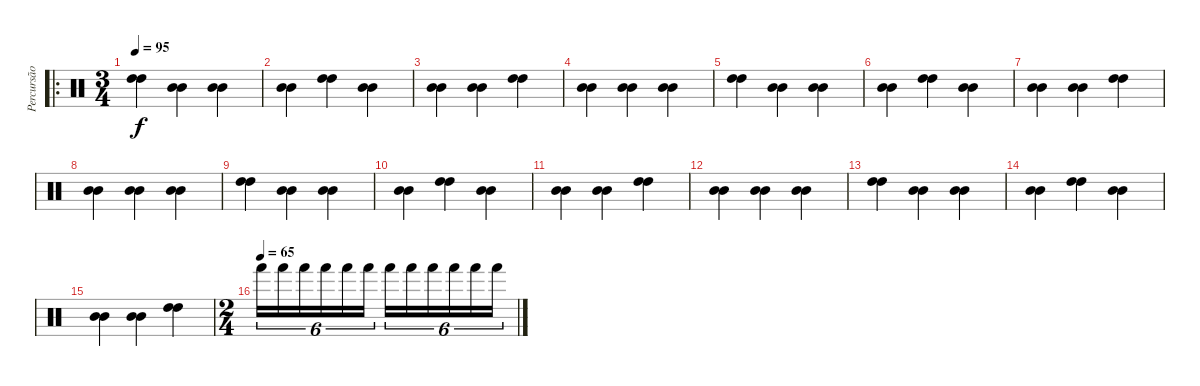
\track ("Percursão" "Percursão") {instrument percussion}
\staff {score}
\articulation defaults
\ro
\ts (3 4)
\tempo 95
\clef neutral
\ks c
("High Tom (hit)" "High Tom (hit)").4{dy f} ("Mid Tom (hit)" "Mid Tom (hit)").4 ("Mid Tom (hit)" "Mid Tom (hit)").4 |
("Mid Tom (hit)" "Mid Tom (hit)").4 ("High Tom (hit)" "High Tom (hit)").4 ("Mid Tom (hit)" "Mid Tom (hit)").4 |
("Mid Tom (hit)" "Mid Tom (hit)").4 ("Mid Tom (hit)" "Mid Tom (hit)").4 ("High Tom (hit)" "High Tom (hit)").4 |
("Mid Tom (hit)" "Mid Tom (hit)").4 ("Mid Tom (hit)" "Mid Tom (hit)").4 ("Mid Tom (hit)" "Mid Tom (hit)").4 |
("High Tom (hit)" "High Tom (hit)").4 ("Mid Tom (hit)" "Mid Tom (hit)").4 ("Mid Tom (hit)" "Mid Tom (hit)").4 |
("Mid Tom (hit)" "Mid Tom (hit)").4 ("High Tom (hit)" "High Tom (hit)").4 ("Mid Tom (hit)" "Mid Tom (hit)").4 |
("Mid Tom (hit)" "Mid Tom (hit)").4 ("Mid Tom (hit)" "Mid Tom (hit)").4 ("High Tom (hit)" "High Tom (hit)").4 |
("Mid Tom (hit)" "Mid Tom (hit)").4 ("Mid Tom (hit)" "Mid Tom (hit)").4 ("Mid Tom (hit)" "Mid Tom (hit)").4 |
("High Tom (hit)" "High Tom (hit)").4 ("Mid Tom (hit)" "Mid Tom (hit)").4 ("Mid Tom (hit)" "Mid Tom (hit)").4 |
("Mid Tom (hit)" "Mid Tom (hit)").4 ("High Tom (hit)" "High Tom (hit)").4 ("Mid Tom (hit)" "Mid Tom (hit)").4 |
("Mid Tom (hit)" "Mid Tom (hit)").4 ("Mid Tom (hit)" "Mid Tom (hit)").4 ("High Tom (hit)" "High Tom (hit)").4 |
("Mid Tom (hit)" "Mid Tom (hit)").4 ("Mid Tom (hit)" "Mid Tom (hit)").4 ("Mid Tom (hit)" "Mid Tom (hit)").4 |
("High Tom (hit)" "High Tom (hit)").4 ("Mid Tom (hit)" "Mid Tom (hit)").4 ("Mid Tom (hit)" "Mid Tom (hit)").4 |
("Mid Tom (hit)" "Mid Tom (hit)").4 ("High Tom (hit)" "High Tom (hit)").4 ("Mid Tom (hit)" "Mid Tom (hit)").4 |
("Mid Tom (hit)" "Mid Tom (hit)").4 ("Mid Tom (hit)" "Mid Tom (hit)").4 ("High Tom (hit)" "High Tom (hit)").4 |
\ts (2 4)
\tempo (65)
"Hand (hit)".16{tu (6 4)} "Hand (hit)".16{tu (6 4)} "Hand (hit)".16{tu (6 4)} "Hand (hit)".16{tu (6 4)} "Hand (hit)".16{tu (6 4)} "Hand (hit)".16{tu (6 4)} "Hand (hit)".16{tu (6 4)} "Hand (hit)".16{tu (6 4)} "Hand (hit)".16{tu (6 4)} "Hand (hit)".16{tu (6 4)} "Hand (hit)".16{tu (6 4)} "Hand (hit)".16{tu (6 4)}
